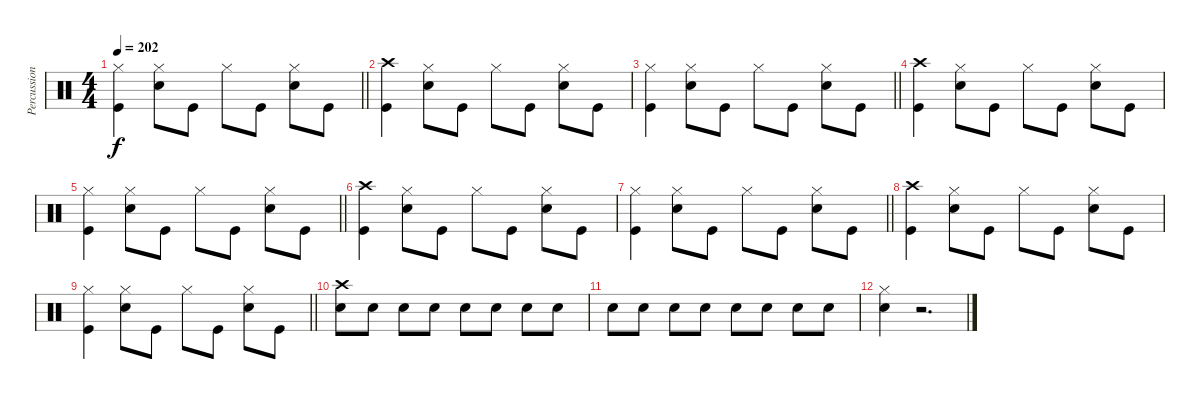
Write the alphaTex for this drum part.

\track ("Percussion" "Percussion") {instrument percussion}
\staff {score}
\articulation defaults
\ts (4 4)
\tempo 202
\clef neutral
\barLineRight lightlight
\ks c
("Hi-Hat (closed)" "Kick (hit)").4{dy f} ("Hi-Hat (closed)" "Snare (hit) 2").8 "Kick (hit)".8 "Hi-Hat (closed)".8 "Kick (hit)".8 ("Hi-Hat (closed)" "Snare (hit) 2").8 "Kick (hit)".8 |
("Crash high (hit)" "Kick (hit)").4 ("Hi-Hat (closed)" "Snare (hit) 2").8 "Kick (hit)".8 "Hi-Hat (closed)".8 "Kick (hit)".8 ("Hi-Hat (closed)" "Snare (hit) 2").8 "Kick (hit)".8 |
\barLineRight lightlight
("Hi-Hat (closed)" "Kick (hit)").4 ("Hi-Hat (closed)" "Snare (hit) 2").8 "Kick (hit)".8 "Hi-Hat (closed)".8 "Kick (hit)".8 ("Hi-Hat (closed)" "Snare (hit) 2").8 "Kick (hit)".8 |
("Crash high (hit)" "Kick (hit)").4 ("Hi-Hat (closed)" "Snare (hit) 2").8 "Kick (hit)".8 "Hi-Hat (closed)".8 "Kick (hit)".8 ("Hi-Hat (closed)" "Snare (hit) 2").8 "Kick (hit)".8 |
\barLineRight lightlight
("Hi-Hat (closed)" "Kick (hit)").4 ("Hi-Hat (closed)" "Snare (hit) 2").8 "Kick (hit)".8 "Hi-Hat (closed)".8 "Kick (hit)".8 ("Hi-Hat (closed)" "Snare (hit) 2").8 "Kick (hit)".8 |
("Crash high (hit)" "Kick (hit)").4 ("Hi-Hat (closed)" "Snare (hit) 2").8 "Kick (hit)".8 "Hi-Hat (closed)".8 "Kick (hit)".8 ("Hi-Hat (closed)" "Snare (hit) 2").8 "Kick (hit)".8 |
\barLineRight lightlight
("Hi-Hat (closed)" "Kick (hit)").4 ("Hi-Hat (closed)" "Snare (hit) 2").8 "Kick (hit)".8 "Hi-Hat (closed)".8 "Kick (hit)".8 ("Hi-Hat (closed)" "Snare (hit) 2").8 "Kick (hit)".8 |
("Crash high (hit)" "Kick (hit)").4 ("Hi-Hat (closed)" "Snare (hit) 2").8 "Kick (hit)".8 "Hi-Hat (closed)".8 "Kick (hit)".8 ("Hi-Hat (closed)" "Snare (hit) 2").8 "Kick (hit)".8 |
\barLineRight lightlight
("Hi-Hat (closed)" "Kick (hit)").4 ("Hi-Hat (closed)" "Snare (hit) 2").8 "Kick (hit)".8 "Hi-Hat (closed)".8 "Kick (hit)".8 ("Hi-Hat (closed)" "Snare (hit) 2").8 "Kick (hit)".8 |
("Crash high (hit)" "Snare (hit) 2").8 "Snare (hit) 2".8 "Snare (hit) 2".8 "Snare (hit) 2".8 "Snare (hit) 2".8 "Snare (hit) 2".8 "Snare (hit) 2".8 "Snare (hit) 2".8 |
"Snare (hit) 2".8 "Snare (hit) 2".8 "Snare (hit) 2".8 "Snare (hit) 2".8 "Snare (hit) 2".8 "Snare (hit) 2".8 "Snare (hit) 2".8 "Snare (hit) 2".8 |
("Hi-Hat (closed)" "Snare (hit) 2").4 r.2{d}
